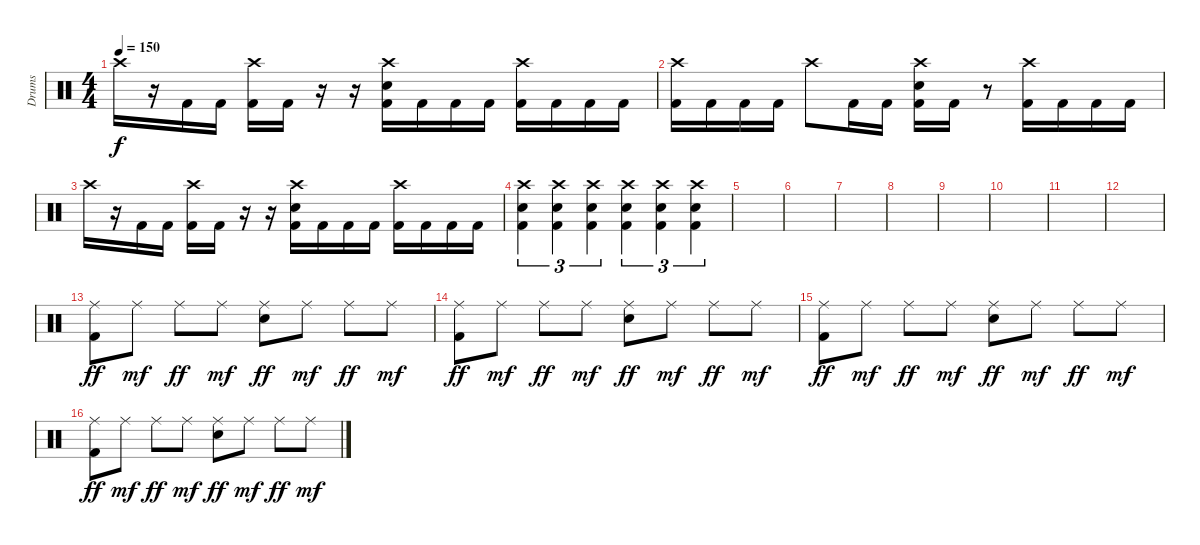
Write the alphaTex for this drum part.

\track ("Drums" "Drums") {instrument percussion}
\staff {score}
\articulation defaults
\ts (4 4)
\tempo 150
\clef neutral
\ks c "Crash high (hit)".16{dy f}
r.16 "Kick (hit) 2".16 "Kick (hit) 2".16 ("Crash high (hit)" "Kick (hit) 2").16 "Kick (hit) 2".16 r.16 r.16 ("Crash high (hit)" "Electric Snare (hit)" "Kick (hit) 2").16 "Kick (hit) 2".16 "Kick (hit) 2".16 "Kick (hit) 2".16 ("Crash high (hit)" "Kick (hit) 2").16 "Kick (hit) 2".16 "Kick (hit) 2".16 "Kick (hit) 2".16 |
("Crash high (hit)" "Kick (hit) 2").16 "Kick (hit) 2".16 "Kick (hit) 2".16 "Kick (hit) 2".16 "Crash high (hit)".8 "Kick (hit) 2".16 "Kick (hit) 2".16 ("Crash high (hit)" "Electric Snare (hit)" "Kick (hit) 2").16 "Kick (hit) 2".16 r.8 ("Crash high (hit)" "Kick (hit) 2").16 "Kick (hit) 2".16 "Kick (hit) 2".16 "Kick (hit) 2".16 |
"Crash high (hit)".16 r.16 "Kick (hit) 2".16 "Kick (hit) 2".16 ("Crash high (hit)" "Kick (hit) 2").16 "Kick (hit) 2".16 r.16 r.16 ("Crash high (hit)" "Electric Snare (hit)" "Kick (hit) 2").16 "Kick (hit) 2".16 "Kick (hit) 2".16 "Kick (hit) 2".16 ("Crash high (hit)" "Kick (hit) 2").16 "Kick (hit) 2".16 "Kick (hit) 2".16 "Kick (hit) 2".16 |
("Crash high (hit)" "Electric Snare (hit)" "Kick (hit) 2").4{tu (3 2)} ("Crash high (hit)" "Electric Snare (hit)" "Kick (hit) 2").4{tu (3 2)} ("Crash high (hit)" "Electric Snare (hit)" "Kick (hit) 2").4{tu (3 2)} ("Crash high (hit)" "Electric Snare (hit)" "Kick (hit) 2").4{tu (3 2)} ("Crash high (hit)" "Electric Snare (hit)" "Kick (hit) 2").4{tu (3 2)} ("Crash high (hit)" "Electric Snare (hit)" "Kick (hit) 2").4{tu (3 2)} |
|
|
|
|
|
|
|
|
("Ride (middle)" "Kick (hit) 2").8{dy ff} "Ride (middle)".8{dy mf} "Ride (middle)".8{dy ff} "Ride (middle)".8{dy mf} ("Ride (middle)" "Electric Snare (hit)").8{dy ff} "Ride (middle)".8{dy mf} "Ride (middle)".8{dy ff} "Ride (middle)".8{dy mf} |
("Ride (middle)" "Kick (hit) 2").8{dy ff} "Ride (middle)".8{dy mf} "Ride (middle)".8{dy ff} "Ride (middle)".8{dy mf} ("Ride (middle)" "Electric Snare (hit)").8{dy ff} "Ride (middle)".8{dy mf} "Ride (middle)".8{dy ff} "Ride (middle)".8{dy mf} |
("Ride (middle)" "Kick (hit) 2").8{dy ff} "Ride (middle)".8{dy mf} "Ride (middle)".8{dy ff} "Ride (middle)".8{dy mf} ("Ride (middle)" "Electric Snare (hit)").8{dy ff} "Ride (middle)".8{dy mf} "Ride (middle)".8{dy ff} "Ride (middle)".8{dy mf} |
("Ride (middle)" "Kick (hit) 2").8{dy ff} "Ride (middle)".8{dy mf} "Ride (middle)".8{dy ff} "Ride (middle)".8{dy mf} ("Ride (middle)" "Electric Snare (hit)").8{dy ff} "Ride (middle)".8{dy mf} "Ride (middle)".8{dy ff} "Ride (middle)".8{dy mf}
